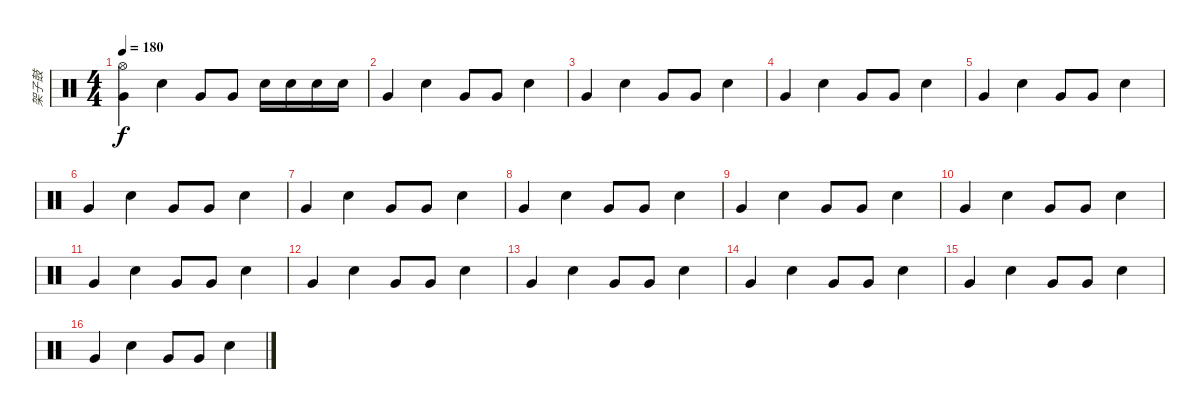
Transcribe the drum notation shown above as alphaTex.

\track ("架子鼓" "架子鼓") {instrument percussion}
\staff {score}
\articulation defaults
\ts (4 4)
\tempo 180
\clef neutral
\ks c
("Hi-Hat (open)" "Very Low Tom (hit)").4{dy f} "Electric Snare (hit)".4 "Very Low Tom (hit)".8 "Very Low Tom (hit)".8 "Electric Snare (hit)".16 "Electric Snare (hit)".16 "Electric Snare (hit)".16 "Electric Snare (hit)".16 |
"Very Low Tom (hit)".4 "Electric Snare (hit)".4 "Very Low Tom (hit)".8 "Very Low Tom (hit)".8 "Electric Snare (hit)".4 |
"Very Low Tom (hit)".4 "Electric Snare (hit)".4 "Very Low Tom (hit)".8 "Very Low Tom (hit)".8 "Electric Snare (hit)".4 |
"Very Low Tom (hit)".4 "Electric Snare (hit)".4 "Very Low Tom (hit)".8 "Very Low Tom (hit)".8 "Electric Snare (hit)".4 |
"Very Low Tom (hit)".4 "Electric Snare (hit)".4 "Very Low Tom (hit)".8 "Very Low Tom (hit)".8 "Electric Snare (hit)".4 |
"Very Low Tom (hit)".4 "Electric Snare (hit)".4 "Very Low Tom (hit)".8 "Very Low Tom (hit)".8 "Electric Snare (hit)".4 |
"Very Low Tom (hit)".4 "Electric Snare (hit)".4 "Very Low Tom (hit)".8 "Very Low Tom (hit)".8 "Electric Snare (hit)".4 |
"Very Low Tom (hit)".4 "Electric Snare (hit)".4 "Very Low Tom (hit)".8 "Very Low Tom (hit)".8 "Electric Snare (hit)".4 |
"Very Low Tom (hit)".4 "Electric Snare (hit)".4 "Very Low Tom (hit)".8 "Very Low Tom (hit)".8 "Electric Snare (hit)".4 |
"Very Low Tom (hit)".4 "Electric Snare (hit)".4 "Very Low Tom (hit)".8 "Very Low Tom (hit)".8 "Electric Snare (hit)".4 |
"Very Low Tom (hit)".4 "Electric Snare (hit)".4 "Very Low Tom (hit)".8 "Very Low Tom (hit)".8 "Electric Snare (hit)".4 |
"Very Low Tom (hit)".4 "Electric Snare (hit)".4 "Very Low Tom (hit)".8 "Very Low Tom (hit)".8 "Electric Snare (hit)".4 |
"Very Low Tom (hit)".4 "Electric Snare (hit)".4 "Very Low Tom (hit)".8 "Very Low Tom (hit)".8 "Electric Snare (hit)".4 |
"Very Low Tom (hit)".4 "Electric Snare (hit)".4 "Very Low Tom (hit)".8 "Very Low Tom (hit)".8 "Electric Snare (hit)".4 |
"Very Low Tom (hit)".4 "Electric Snare (hit)".4 "Very Low Tom (hit)".8 "Very Low Tom (hit)".8 "Electric Snare (hit)".4 |
"Very Low Tom (hit)".4 "Electric Snare (hit)".4 "Very Low Tom (hit)".8 "Very Low Tom (hit)".8 "Electric Snare (hit)".4
